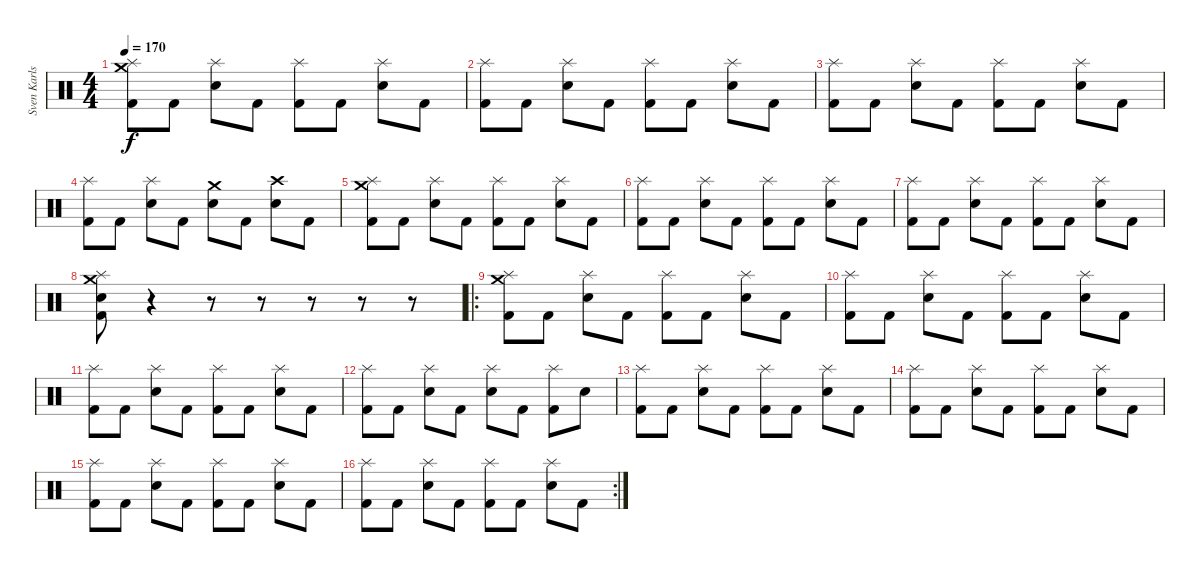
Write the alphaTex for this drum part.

\track ("Sven Karlsson" "Sven Karls") {instrument percussion}
\staff {score}
\articulation defaults
\ts (4 4)
\tempo 170
\clef neutral
\ks c
("Splash (hit)" "Crash medium (hit)" "Kick (hit) 2").8{dy f} "Kick (hit) 2".8 ("Splash (hit)" "Electric Snare (hit)").8 "Kick (hit) 2".8 ("Splash (hit)" "Kick (hit) 2").8 "Kick (hit) 2".8 ("Splash (hit)" "Electric Snare (hit)").8 "Kick (hit) 2".8 |
("Splash (hit)" "Kick (hit) 2").8 "Kick (hit) 2".8 ("Splash (hit)" "Electric Snare (hit)").8 "Kick (hit) 2".8 ("Splash (hit)" "Kick (hit) 2").8 "Kick (hit) 2".8 ("Splash (hit)" "Electric Snare (hit)").8 "Kick (hit) 2".8 |
("Splash (hit)" "Kick (hit) 2").8 "Kick (hit) 2".8 ("Splash (hit)" "Electric Snare (hit)").8 "Kick (hit) 2".8 ("Splash (hit)" "Kick (hit) 2").8 "Kick (hit) 2".8 ("Splash (hit)" "Electric Snare (hit)").8 "Kick (hit) 2".8 |
("Splash (hit)" "Kick (hit) 2").8 "Kick (hit) 2".8 ("Splash (hit)" "Electric Snare (hit)").8 "Kick (hit) 2".8 ("Crash medium (hit)" "Electric Snare (hit)").8 "Kick (hit) 2".8 ("Crash high (hit)" "Electric Snare (hit)").8 "Kick (hit) 2".8 |
("Splash (hit)" "Crash medium (hit)" "Kick (hit) 2").8 "Kick (hit) 2".8 ("Splash (hit)" "Electric Snare (hit)").8 "Kick (hit) 2".8 ("Splash (hit)" "Kick (hit) 2").8 "Kick (hit) 2".8 ("Splash (hit)" "Electric Snare (hit)").8 "Kick (hit) 2".8 |
("Splash (hit)" "Kick (hit) 2").8 "Kick (hit) 2".8 ("Splash (hit)" "Electric Snare (hit)").8 "Kick (hit) 2".8 ("Splash (hit)" "Kick (hit) 2").8 "Kick (hit) 2".8 ("Splash (hit)" "Electric Snare (hit)").8 "Kick (hit) 2".8 |
("Splash (hit)" "Kick (hit) 2").8 "Kick (hit) 2".8 ("Splash (hit)" "Electric Snare (hit)").8 "Kick (hit) 2".8 ("Splash (hit)" "Kick (hit) 2").8 "Kick (hit) 2".8 ("Splash (hit)" "Electric Snare (hit)").8 "Kick (hit) 2".8 |
("Splash (hit)" "Crash medium (hit)" "Electric Snare (hit)" "Kick (hit) 2").8 r.4 r.8 r.8 r.8 r.8 r.8 |
\ro
("Splash (hit)" "Crash medium (hit)" "Kick (hit) 2").8 "Kick (hit) 2".8 ("Splash (hit)" "Electric Snare (hit)").8 "Kick (hit) 2".8 ("Splash (hit)" "Kick (hit) 2").8 "Kick (hit) 2".8 ("Splash (hit)" "Electric Snare (hit)").8 "Kick (hit) 2".8 |
("Splash (hit)" "Kick (hit) 2").8 "Kick (hit) 2".8 ("Splash (hit)" "Electric Snare (hit)").8 "Kick (hit) 2".8 ("Splash (hit)" "Kick (hit) 2").8 "Kick (hit) 2".8 ("Splash (hit)" "Electric Snare (hit)").8 "Kick (hit) 2".8 |
("Splash (hit)" "Kick (hit) 2").8 "Kick (hit) 2".8 ("Splash (hit)" "Electric Snare (hit)").8 "Kick (hit) 2".8 ("Splash (hit)" "Kick (hit) 2").8 "Kick (hit) 2".8 ("Splash (hit)" "Electric Snare (hit)").8 "Kick (hit) 2".8 |
("Splash (hit)" "Kick (hit) 2").8 "Kick (hit) 2".8 ("Splash (hit)" "Electric Snare (hit)").8 "Kick (hit) 2".8 ("Splash (hit)" "Electric Snare (hit)").8 "Kick (hit) 2".8 ("Splash (hit)" "Kick (hit) 2").8 "Electric Snare (hit)".8 |
("Splash (hit)" "Kick (hit) 2").8 "Kick (hit) 2".8 ("Splash (hit)" "Electric Snare (hit)").8 "Kick (hit) 2".8 ("Splash (hit)" "Kick (hit) 2").8 "Kick (hit) 2".8 ("Splash (hit)" "Electric Snare (hit)").8 "Kick (hit) 2".8 |
("Splash (hit)" "Kick (hit) 2").8 "Kick (hit) 2".8 ("Splash (hit)" "Electric Snare (hit)").8 "Kick (hit) 2".8 ("Splash (hit)" "Kick (hit) 2").8 "Kick (hit) 2".8 ("Splash (hit)" "Electric Snare (hit)").8 "Kick (hit) 2".8 |
("Splash (hit)" "Kick (hit) 2").8 "Kick (hit) 2".8 ("Splash (hit)" "Electric Snare (hit)").8 "Kick (hit) 2".8 ("Splash (hit)" "Kick (hit) 2").8 "Kick (hit) 2".8 ("Splash (hit)" "Electric Snare (hit)").8 "Kick (hit) 2".8 |
\rc 2
("Splash (hit)" "Kick (hit) 2").8 "Kick (hit) 2".8 ("Splash (hit)" "Electric Snare (hit)").8 "Kick (hit) 2".8 ("Splash (hit)" "Kick (hit) 2").8 "Kick (hit) 2".8 ("Splash (hit)" "Electric Snare (hit)").8 "Kick (hit) 2".8
